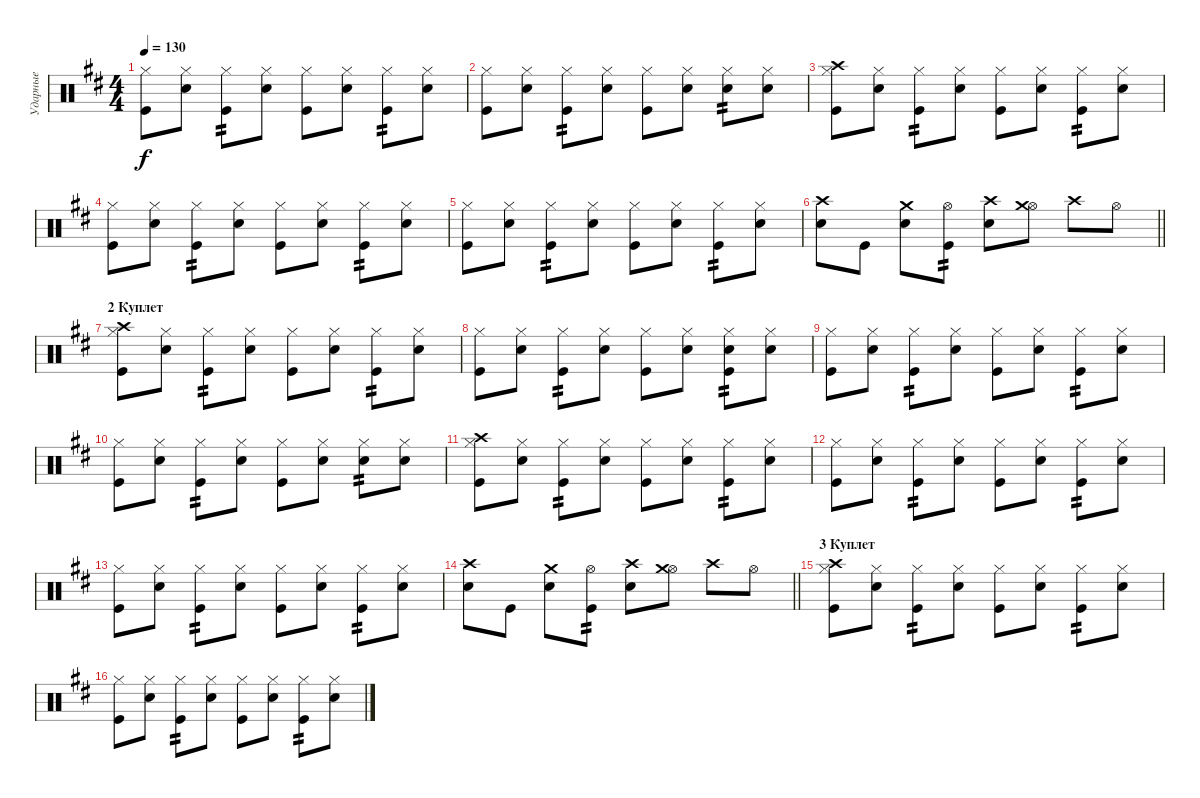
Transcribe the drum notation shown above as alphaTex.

\track ("Ударные" "Ударные") {instrument percussion}
\staff {score}
\articulation defaults
\ts (4 4)
\tempo 130
\clef neutral
\ks bminor
("Hi-Hat (closed)" "Kick (hit)").8{dy f} ("Hi-Hat (closed)" "Electric Snare (hit)").8 ("Hi-Hat (closed)" "Kick (hit)").8{tp 2} ("Hi-Hat (closed)" "Electric Snare (hit)").8 ("Hi-Hat (closed)" "Kick (hit)").8 ("Hi-Hat (closed)" "Electric Snare (hit)").8 ("Hi-Hat (closed)" "Kick (hit)").8{tp 2} ("Hi-Hat (closed)" "Electric Snare (hit)").8 |
("Hi-Hat (closed)" "Kick (hit)").8 ("Hi-Hat (closed)" "Electric Snare (hit)").8 ("Hi-Hat (closed)" "Kick (hit)").8{tp 2} ("Hi-Hat (closed)" "Electric Snare (hit)").8 ("Hi-Hat (closed)" "Kick (hit)").8 ("Hi-Hat (closed)" "Electric Snare (hit)").8 ("Hi-Hat (closed)" "Electric Snare (hit)").8{tp 2} ("Hi-Hat (closed)" "Electric Snare (hit)").8 |
("Hi-Hat (closed)" "Crash high (hit)" "Kick (hit)").8 ("Hi-Hat (closed)" "Electric Snare (hit)").8 ("Hi-Hat (closed)" "Kick (hit)").8{tp 2} ("Hi-Hat (closed)" "Electric Snare (hit)").8 ("Hi-Hat (closed)" "Kick (hit)").8 ("Hi-Hat (closed)" "Electric Snare (hit)").8 ("Hi-Hat (closed)" "Kick (hit)").8{tp 2} ("Hi-Hat (closed)" "Electric Snare (hit)").8 |
("Hi-Hat (closed)" "Kick (hit)").8 ("Hi-Hat (closed)" "Electric Snare (hit)").8 ("Hi-Hat (closed)" "Kick (hit)").8{tp 2} ("Hi-Hat (closed)" "Electric Snare (hit)").8 ("Hi-Hat (closed)" "Kick (hit)").8 ("Hi-Hat (closed)" "Electric Snare (hit)").8 ("Hi-Hat (closed)" "Kick (hit)").8{tp 2} ("Hi-Hat (closed)" "Electric Snare (hit)").8 |
("Hi-Hat (closed)" "Kick (hit)").8 ("Hi-Hat (closed)" "Electric Snare (hit)").8 ("Hi-Hat (closed)" "Kick (hit)").8{tp 2} ("Hi-Hat (closed)" "Electric Snare (hit)").8 ("Hi-Hat (closed)" "Kick (hit)").8 ("Hi-Hat (closed)" "Electric Snare (hit)").8 ("Hi-Hat (closed)" "Kick (hit)").8{tp 2} ("Hi-Hat (closed)" "Electric Snare (hit)").8 |
\barLineRight lightlight
("Crash high (hit)" "Electric Snare (hit)").8 "Kick (hit)".8 ("Crash medium (hit)" "Electric Snare (hit)").8 ("Hi-Hat (open)" "Kick (hit)").8{tp 2} ("Crash high (hit)" "Electric Snare (hit)").8 ("Hi-Hat (open)" "Crash medium (hit)").8 "Crash high (hit)".8 "Hi-Hat (open)".8 |
\section ("" "2 Куплет")
("Hi-Hat (closed)" "Crash high (hit)" "Kick (hit)").8 ("Hi-Hat (closed)" "Electric Snare (hit)").8 ("Hi-Hat (closed)" "Kick (hit)").8{tp 2} ("Hi-Hat (closed)" "Electric Snare (hit)").8 ("Hi-Hat (closed)" "Kick (hit)").8 ("Hi-Hat (closed)" "Electric Snare (hit)").8 ("Hi-Hat (closed)" "Kick (hit)").8{tp 2} ("Hi-Hat (closed)" "Electric Snare (hit)").8 |
("Hi-Hat (closed)" "Kick (hit)").8 ("Hi-Hat (closed)" "Electric Snare (hit)").8 ("Hi-Hat (closed)" "Kick (hit)").8{tp 2} ("Hi-Hat (closed)" "Electric Snare (hit)").8 ("Hi-Hat (closed)" "Kick (hit)").8 ("Hi-Hat (closed)" "Electric Snare (hit)").8 ("Hi-Hat (closed)" "Electric Snare (hit)" "Kick (hit)").8{tp 2} ("Hi-Hat (closed)" "Electric Snare (hit)").8 |
("Hi-Hat (closed)" "Kick (hit)").8 ("Hi-Hat (closed)" "Electric Snare (hit)").8 ("Hi-Hat (closed)" "Kick (hit)").8{tp 2} ("Hi-Hat (closed)" "Electric Snare (hit)").8 ("Hi-Hat (closed)" "Kick (hit)").8 ("Hi-Hat (closed)" "Electric Snare (hit)").8 ("Hi-Hat (closed)" "Kick (hit)").8{tp 2} ("Hi-Hat (closed)" "Electric Snare (hit)").8 |
("Hi-Hat (closed)" "Kick (hit)").8 ("Hi-Hat (closed)" "Electric Snare (hit)").8 ("Hi-Hat (closed)" "Kick (hit)").8{tp 2} ("Hi-Hat (closed)" "Electric Snare (hit)").8 ("Hi-Hat (closed)" "Kick (hit)").8 ("Hi-Hat (closed)" "Electric Snare (hit)").8 ("Hi-Hat (closed)" "Electric Snare (hit)").8{tp 2} ("Hi-Hat (closed)" "Electric Snare (hit)").8 |
("Hi-Hat (closed)" "Crash high (hit)" "Kick (hit)").8 ("Hi-Hat (closed)" "Electric Snare (hit)").8 ("Hi-Hat (closed)" "Kick (hit)").8{tp 2} ("Hi-Hat (closed)" "Electric Snare (hit)").8 ("Hi-Hat (closed)" "Kick (hit)").8 ("Hi-Hat (closed)" "Electric Snare (hit)").8 ("Hi-Hat (closed)" "Kick (hit)").8{tp 2} ("Hi-Hat (closed)" "Electric Snare (hit)").8 |
("Hi-Hat (closed)" "Kick (hit)").8 ("Hi-Hat (closed)" "Electric Snare (hit)").8 ("Hi-Hat (closed)" "Kick (hit)").8{tp 2} ("Hi-Hat (closed)" "Electric Snare (hit)").8 ("Hi-Hat (closed)" "Kick (hit)").8 ("Hi-Hat (closed)" "Electric Snare (hit)").8 ("Hi-Hat (closed)" "Kick (hit)").8{tp 2} ("Hi-Hat (closed)" "Electric Snare (hit)").8 |
("Hi-Hat (closed)" "Kick (hit)").8 ("Hi-Hat (closed)" "Electric Snare (hit)").8 ("Hi-Hat (closed)" "Kick (hit)").8{tp 2} ("Hi-Hat (closed)" "Electric Snare (hit)").8 ("Hi-Hat (closed)" "Kick (hit)").8 ("Hi-Hat (closed)" "Electric Snare (hit)").8 ("Hi-Hat (closed)" "Kick (hit)").8{tp 2} ("Hi-Hat (closed)" "Electric Snare (hit)").8 |
\barLineRight lightlight
("Crash high (hit)" "Electric Snare (hit)").8 "Kick (hit)".8 ("Crash medium (hit)" "Electric Snare (hit)").8 ("Hi-Hat (open)" "Kick (hit)").8{tp 2} ("Crash high (hit)" "Electric Snare (hit)").8 ("Hi-Hat (open)" "Crash medium (hit)").8 "Crash high (hit)".8 "Hi-Hat (open)".8 |
\section ("" "3 Куплет")
("Hi-Hat (closed)" "Crash high (hit)" "Kick (hit)").8 ("Hi-Hat (closed)" "Electric Snare (hit)").8 ("Hi-Hat (closed)" "Kick (hit)").8{tp 2} ("Hi-Hat (closed)" "Electric Snare (hit)").8 ("Hi-Hat (closed)" "Kick (hit)").8 ("Hi-Hat (closed)" "Electric Snare (hit)").8 ("Hi-Hat (closed)" "Kick (hit)").8{tp 2} ("Hi-Hat (closed)" "Electric Snare (hit)").8 |
("Hi-Hat (closed)" "Kick (hit)").8 ("Hi-Hat (closed)" "Electric Snare (hit)").8 ("Hi-Hat (closed)" "Kick (hit)").8{tp 2} ("Hi-Hat (closed)" "Electric Snare (hit)").8 ("Hi-Hat (closed)" "Kick (hit)").8 ("Hi-Hat (closed)" "Electric Snare (hit)").8 ("Hi-Hat (closed)" "Kick (hit)").8{tp 2} ("Hi-Hat (closed)" "Electric Snare (hit)").8
